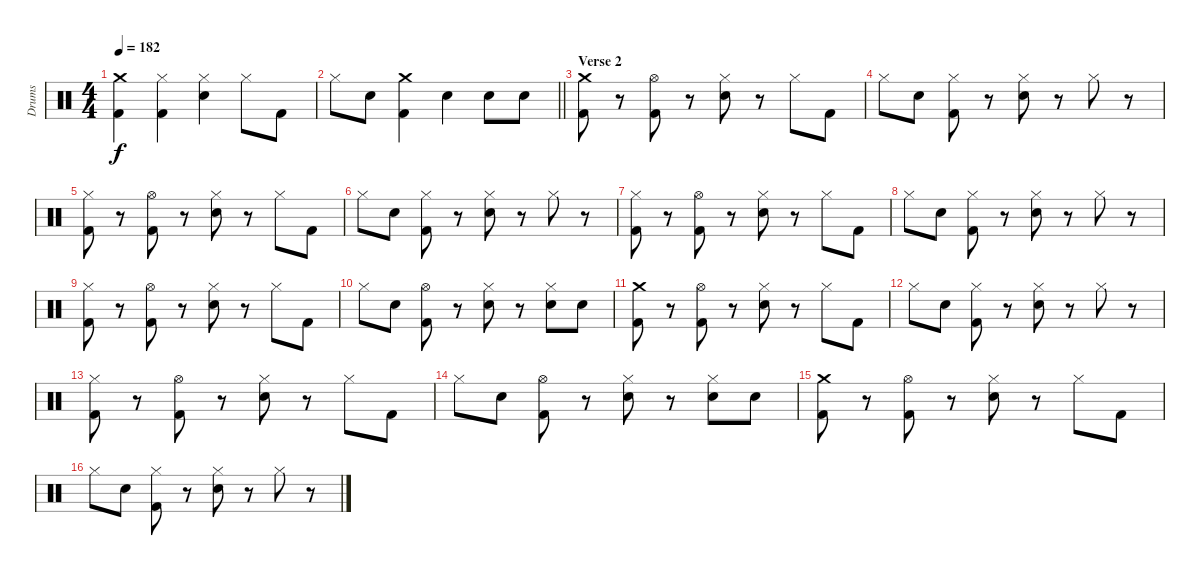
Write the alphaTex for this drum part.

\track ("Drums" "Drums") {instrument percussion}
\staff {score}
\articulation defaults
\ts (4 4)
\tempo 182
\clef neutral
\ks c
("Crash medium (hit)" "Kick (hit) 2").4{dy f} ("Hi-Hat (closed)" "Kick (hit) 2").4 ("Hi-Hat (closed)" "Snare (hit) 2").4 "Hi-Hat (closed)".8 "Kick (hit) 2".8 |
\barLineRight lightlight "Hi-Hat (closed)".8 "Snare (hit) 2".8
("Crash medium (hit)" "Kick (hit) 2").4 "Snare (hit) 2".4 "Snare (hit) 2".8 "Snare (hit) 2".8 |
\section ("" "Verse 2")
("Crash medium (hit)" "Kick (hit) 2").8 r.8 ("Hi-Hat (open)" "Kick (hit) 2").8 r.8 ("Hi-Hat (closed)" "Snare (hit) 2").8 r.8 "Hi-Hat (closed)".8 "Kick (hit) 2".8 |
"Hi-Hat (closed)".8 "Snare (hit) 2".8 ("Hi-Hat (closed)" "Kick (hit) 2").8 r.8 ("Hi-Hat (closed)" "Snare (hit) 2").8 r.8 "Hi-Hat (closed)".8 r.8 |
("Hi-Hat (closed)" "Kick (hit) 2").8 r.8 ("Hi-Hat (open)" "Kick (hit) 2").8 r.8 ("Hi-Hat (closed)" "Snare (hit) 2").8 r.8 "Hi-Hat (closed)".8 "Kick (hit) 2".8 |
"Hi-Hat (closed)".8 "Snare (hit) 2".8 ("Hi-Hat (closed)" "Kick (hit) 2").8 r.8 ("Hi-Hat (closed)" "Snare (hit) 2").8 r.8 "Hi-Hat (closed)".8 r.8 |
("Hi-Hat (closed)" "Kick (hit) 2").8 r.8 ("Hi-Hat (open)" "Kick (hit) 2").8 r.8 ("Hi-Hat (closed)" "Snare (hit) 2").8 r.8 "Hi-Hat (closed)".8 "Kick (hit) 2".8 |
"Hi-Hat (closed)".8 "Snare (hit) 2".8 ("Hi-Hat (closed)" "Kick (hit) 2").8 r.8 ("Hi-Hat (closed)" "Snare (hit) 2").8 r.8 "Hi-Hat (closed)".8 r.8 |
("Hi-Hat (closed)" "Kick (hit) 2").8 r.8 ("Hi-Hat (open)" "Kick (hit) 2").8 r.8 ("Hi-Hat (closed)" "Snare (hit) 2").8 r.8 "Hi-Hat (closed)".8 "Kick (hit) 2".8 |
"Hi-Hat (closed)".8 "Snare (hit) 2".8 ("Hi-Hat (open)" "Kick (hit) 2").8 r.8 ("Hi-Hat (closed)" "Snare (hit) 2").8 r.8 ("Hi-Hat (closed)" "Snare (hit) 2").8 "Snare (hit) 2".8 |
("Crash medium (hit)" "Kick (hit) 2").8 r.8 ("Hi-Hat (open)" "Kick (hit) 2").8 r.8 ("Hi-Hat (closed)" "Snare (hit) 2").8 r.8 "Hi-Hat (closed)".8 "Kick (hit) 2".8 |
"Hi-Hat (closed)".8 "Snare (hit) 2".8 ("Hi-Hat (closed)" "Kick (hit) 2").8 r.8 ("Hi-Hat (closed)" "Snare (hit) 2").8 r.8 "Hi-Hat (closed)".8 r.8 |
("Hi-Hat (closed)" "Kick (hit) 2").8 r.8 ("Hi-Hat (open)" "Kick (hit) 2").8 r.8 ("Hi-Hat (closed)" "Snare (hit) 2").8 r.8 "Hi-Hat (closed)".8 "Kick (hit) 2".8 |
"Hi-Hat (closed)".8 "Snare (hit) 2".8 ("Hi-Hat (open)" "Kick (hit) 2").8 r.8 ("Hi-Hat (closed)" "Snare (hit) 2").8 r.8 ("Hi-Hat (closed)" "Snare (hit) 2").8 "Snare (hit) 2".8 |
("Crash medium (hit)" "Kick (hit) 2").8 r.8 ("Hi-Hat (open)" "Kick (hit) 2").8 r.8 ("Hi-Hat (closed)" "Snare (hit) 2").8 r.8 "Hi-Hat (closed)".8 "Kick (hit) 2".8 |
"Hi-Hat (closed)".8 "Snare (hit) 2".8 ("Hi-Hat (closed)" "Kick (hit) 2").8 r.8 ("Hi-Hat (closed)" "Snare (hit) 2").8 r.8 "Hi-Hat (closed)".8 r.8
